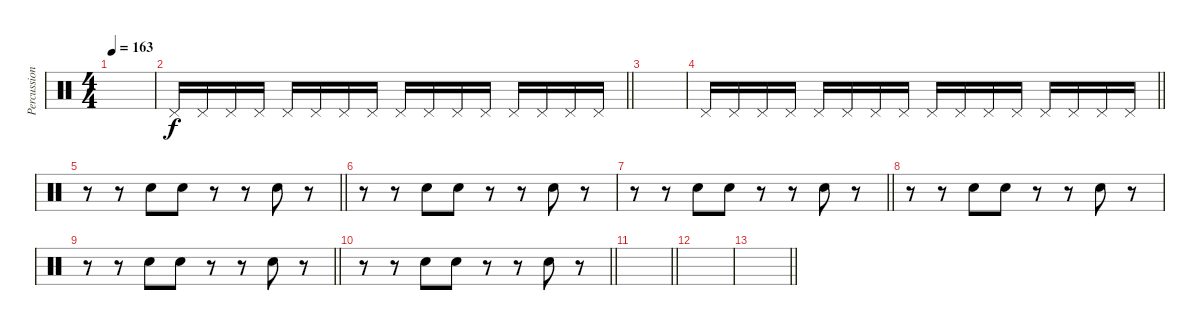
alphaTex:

\track ("Percussion" "Percussion") {instrument percussion}
\staff {score}
\articulation defaults
\ts (4 4)
\tempo 163
\clef neutral
\ks c
|
\barLineRight lightlight "Pedal Hi-Hat (hit)".16 "Pedal Hi-Hat (hit)".16 "Pedal Hi-Hat (hit)".16 "Pedal Hi-Hat (hit)".16 "Pedal Hi-Hat (hit)".16 "Pedal Hi-Hat (hit)".16 "Pedal Hi-Hat (hit)".16 "Pedal Hi-Hat (hit)".16 "Pedal Hi-Hat (hit)".16 "Pedal Hi-Hat (hit)".16 "Pedal Hi-Hat (hit)".16 "Pedal Hi-Hat (hit)".16 "Pedal Hi-Hat (hit)".16 "Pedal Hi-Hat (hit)".16 "Pedal Hi-Hat (hit)".16 "Pedal Hi-Hat (hit)".16
|
\section ("" "")
|
\barLineRight lightlight "Pedal Hi-Hat (hit)".16 "Pedal Hi-Hat (hit)".16 "Pedal Hi-Hat (hit)".16 "Pedal Hi-Hat (hit)".16 "Pedal Hi-Hat (hit)".16 "Pedal Hi-Hat (hit)".16 "Pedal Hi-Hat (hit)".16 "Pedal Hi-Hat (hit)".16 "Pedal Hi-Hat (hit)".16 "Pedal Hi-Hat (hit)".16 "Pedal Hi-Hat (hit)".16 "Pedal Hi-Hat (hit)".16 "Pedal Hi-Hat (hit)".16 "Pedal Hi-Hat (hit)".16 "Pedal Hi-Hat (hit)".16 "Pedal Hi-Hat (hit)".16
|
\barLineRight lightlight
r.8 r.8 "Hand Clap (hit)".8 "Hand Clap (hit)".8 r.8 r.8 "Hand Clap (hit)".8 r.8 |
r.8 r.8 "Hand Clap (hit)".8 "Hand Clap (hit)".8 r.8 r.8 "Hand Clap (hit)".8 r.8 |
\barLineRight lightlight
r.8 r.8 "Hand Clap (hit)".8 "Hand Clap (hit)".8 r.8 r.8 "Hand Clap (hit)".8 r.8 |
r.8 r.8 "Hand Clap (hit)".8 "Hand Clap (hit)".8 r.8 r.8 "Hand Clap (hit)".8 r.8 |
\barLineRight lightlight
r.8 r.8 "Hand Clap (hit)".8 "Hand Clap (hit)".8 r.8 r.8 "Hand Clap (hit)".8 r.8 |
\barLineRight lightlight
r.8 r.8 "Hand Clap (hit)".8 "Hand Clap (hit)".8 r.8 r.8 "Hand Clap (hit)".8 r.8 |
\barLineRight lightlight
|
|
\barLineRight lightlight
